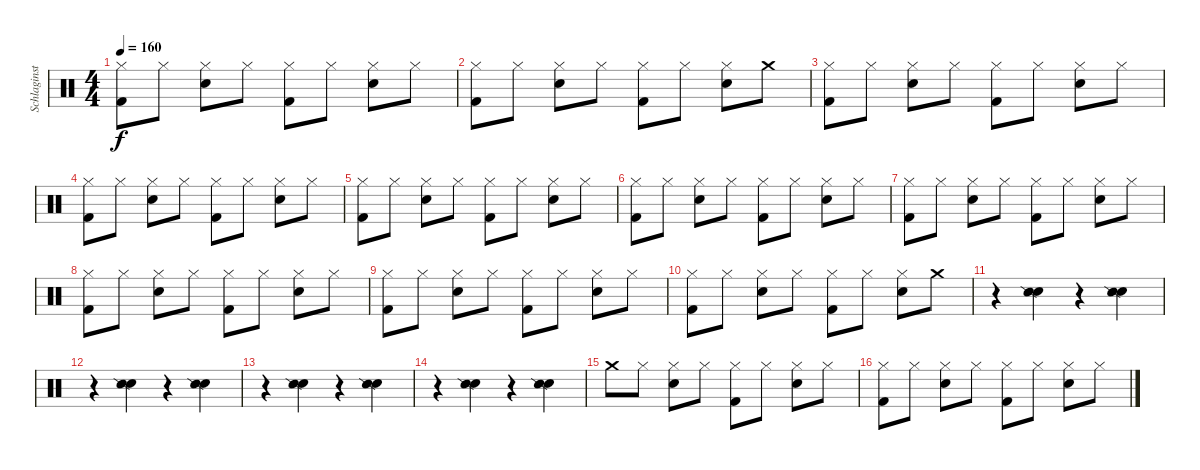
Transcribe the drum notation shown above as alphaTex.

\track ("Schlaginstrumente - Auswahl" "Schlaginst") {instrument percussion}
\staff {score}
\articulation defaults
\ts (4 4)
\tempo 160
\clef neutral
\ks c
("Hi-Hat (closed)" "Kick (hit) 2").8{dy f} "Hi-Hat (closed)".8 ("Hi-Hat (closed)" "Snare (hit) 2").8 "Hi-Hat (closed)".8 ("Hi-Hat (closed)" "Kick (hit) 2").8 "Hi-Hat (closed)".8 ("Hi-Hat (closed)" "Snare (hit) 2").8 "Hi-Hat (closed)".8 |
("Hi-Hat (closed)" "Kick (hit) 2").8 "Hi-Hat (closed)".8 ("Hi-Hat (closed)" "Snare (hit) 2").8 "Hi-Hat (closed)".8 ("Hi-Hat (closed)" "Kick (hit) 2").8 "Hi-Hat (closed)".8 ("Hi-Hat (closed)" "Snare (hit) 2").8 "Crash medium (hit)".8 |
("Hi-Hat (closed)" "Kick (hit) 2").8 "Hi-Hat (closed)".8 ("Hi-Hat (closed)" "Snare (hit) 2").8 "Hi-Hat (closed)".8 ("Hi-Hat (closed)" "Kick (hit) 2").8 "Hi-Hat (closed)".8 ("Hi-Hat (closed)" "Snare (hit) 2").8 "Hi-Hat (closed)".8 |
("Hi-Hat (closed)" "Kick (hit) 2").8 "Hi-Hat (closed)".8 ("Hi-Hat (closed)" "Snare (hit) 2").8 "Hi-Hat (closed)".8 ("Hi-Hat (closed)" "Kick (hit) 2").8 "Hi-Hat (closed)".8 ("Hi-Hat (closed)" "Snare (hit) 2").8 "Hi-Hat (closed)".8 |
("Hi-Hat (closed)" "Kick (hit) 2").8 "Hi-Hat (closed)".8 ("Hi-Hat (closed)" "Snare (hit) 2").8 "Hi-Hat (closed)".8 ("Hi-Hat (closed)" "Kick (hit) 2").8 "Hi-Hat (closed)".8 ("Hi-Hat (closed)" "Snare (hit) 2").8 "Hi-Hat (closed)".8 |
("Hi-Hat (closed)" "Kick (hit) 2").8 "Hi-Hat (closed)".8 ("Hi-Hat (closed)" "Snare (hit) 2").8 "Hi-Hat (closed)".8 ("Hi-Hat (closed)" "Kick (hit) 2").8 "Hi-Hat (closed)".8 ("Hi-Hat (closed)" "Snare (hit) 2").8 "Hi-Hat (closed)".8 |
("Hi-Hat (closed)" "Kick (hit) 2").8 "Hi-Hat (closed)".8 ("Hi-Hat (closed)" "Snare (hit) 2").8 "Hi-Hat (closed)".8 ("Hi-Hat (closed)" "Kick (hit) 2").8 "Hi-Hat (closed)".8 ("Hi-Hat (closed)" "Snare (hit) 2").8 "Hi-Hat (closed)".8 |
("Hi-Hat (closed)" "Kick (hit) 2").8 "Hi-Hat (closed)".8 ("Hi-Hat (closed)" "Snare (hit) 2").8 "Hi-Hat (closed)".8 ("Hi-Hat (closed)" "Kick (hit) 2").8 "Hi-Hat (closed)".8 ("Hi-Hat (closed)" "Snare (hit) 2").8 "Hi-Hat (closed)".8 |
("Hi-Hat (closed)" "Kick (hit) 2").8 "Hi-Hat (closed)".8 ("Hi-Hat (closed)" "Snare (hit) 2").8 "Hi-Hat (closed)".8 ("Hi-Hat (closed)" "Kick (hit) 2").8 "Hi-Hat (closed)".8 ("Hi-Hat (closed)" "Snare (hit) 2").8 "Hi-Hat (closed)".8 |
("Hi-Hat (closed)" "Kick (hit) 2").8 "Hi-Hat (closed)".8 ("Hi-Hat (closed)" "Snare (hit) 2").8 "Hi-Hat (closed)".8 ("Hi-Hat (closed)" "Kick (hit) 2").8 "Hi-Hat (closed)".8 ("Hi-Hat (closed)" "Snare (hit) 2").8 "Crash medium (hit)".8 |
r.4 ("Hand Clap (hit)" "Snare (side stick) 2").4 r.4 ("Hand Clap (hit)" "Snare (side stick) 2").4 |
r.4 ("Hand Clap (hit)" "Snare (side stick) 2").4 r.4 ("Hand Clap (hit)" "Snare (side stick) 2").4 |
r.4 ("Hand Clap (hit)" "Snare (side stick) 2").4 r.4 ("Hand Clap (hit)" "Snare (side stick) 2").4 |
r.4 ("Hand Clap (hit)" "Snare (side stick) 2").4 r.4 ("Hand Clap (hit)" "Snare (side stick) 2").4 |
"Crash medium (hit)".8 "Hi-Hat (closed)".8 ("Hi-Hat (closed)" "Snare (hit) 2").8 "Hi-Hat (closed)".8 ("Hi-Hat (closed)" "Kick (hit) 2").8 "Hi-Hat (closed)".8 ("Hi-Hat (closed)" "Snare (hit) 2").8 "Hi-Hat (closed)".8 |
("Hi-Hat (closed)" "Kick (hit) 2").8 "Hi-Hat (closed)".8 ("Hi-Hat (closed)" "Snare (hit) 2").8 "Hi-Hat (closed)".8 ("Hi-Hat (closed)" "Kick (hit) 2").8 "Hi-Hat (closed)".8 ("Hi-Hat (closed)" "Snare (hit) 2").8 "Hi-Hat (closed)".8
